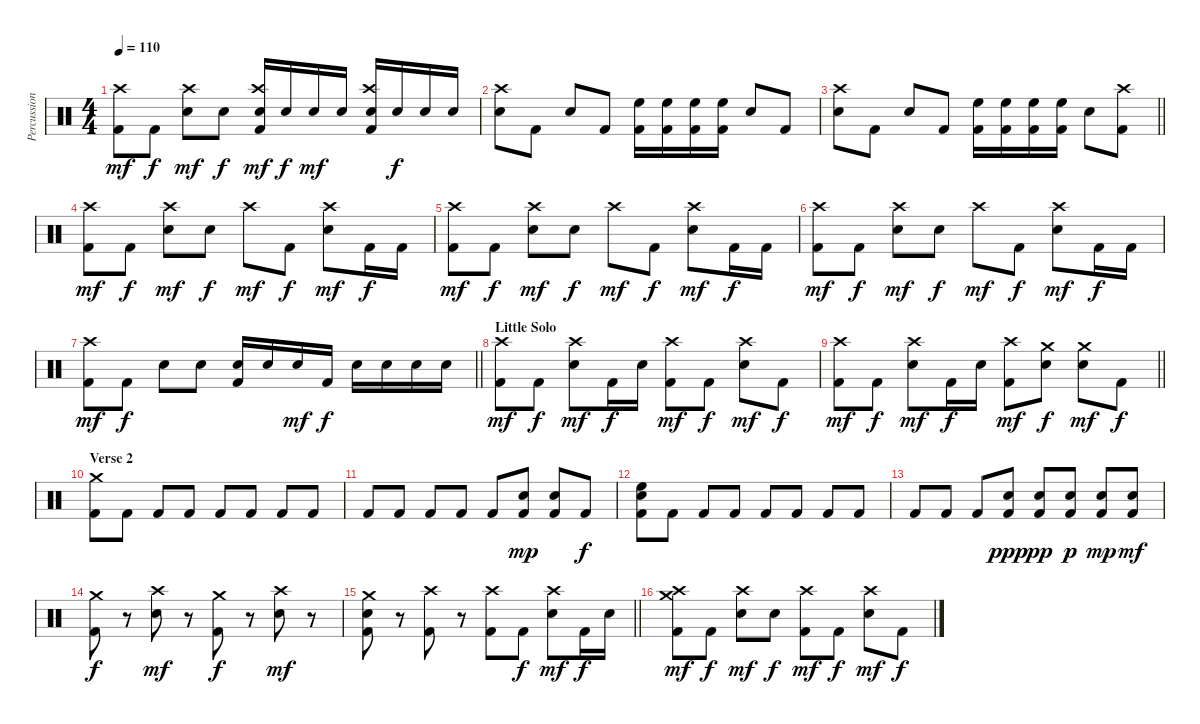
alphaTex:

\track ("Percussion" "Percussion") {instrument percussion}
\staff {score}
\articulation defaults
\ts (4 4)
\tempo 110
\clef neutral
\ks c
("Kick (hit) 2" "Crash high (hit)").8{dy mf} "Kick (hit) 2".8{dy f} ("Electric Snare (hit)" "Crash high (hit)").8{dy mf} "Electric Snare (hit)".8{dy f} ("Kick (hit) 2" "Electric Snare (hit)" "Crash high (hit)").16{dy mf} "Electric Snare (hit)".16{dy f} "Electric Snare (hit)".16{dy mf} "Electric Snare (hit)".16 ("Kick (hit) 2" "Electric Snare (hit)" "Crash high (hit)").16 "Electric Snare (hit)".16{dy f} "Electric Snare (hit)".16 "Electric Snare (hit)".16 |
("Electric Snare (hit)" "Crash high (hit)").8 "Kick (hit) 2".8 "Electric Snare (hit)".8 "Kick (hit) 2".8 ("Kick (hit) 2" "High Floor Tom (hit)").16 ("Kick (hit) 2" "High Floor Tom (hit)").16 ("Kick (hit) 2" "High Floor Tom (hit)").16 ("Kick (hit) 2" "High Floor Tom (hit)").16 "Electric Snare (hit)".8 "Kick (hit) 2".8 |
\barLineRight lightlight
("Electric Snare (hit)" "Crash high (hit)").8 "Kick (hit) 2".8 "Electric Snare (hit)".8 "Kick (hit) 2".8 ("Kick (hit) 2" "High Floor Tom (hit)").16 ("Kick (hit) 2" "High Floor Tom (hit)").16 ("Kick (hit) 2" "High Floor Tom (hit)").16 ("Kick (hit) 2" "High Floor Tom (hit)").16 "Electric Snare (hit)".8 ("Kick (hit) 2" "Crash high (hit)").8 |
("Kick (hit) 2" "Crash high (hit)").8{dy mf} "Kick (hit) 2".8{dy f} ("Electric Snare (hit)" "Crash high (hit)").8{dy mf} "Electric Snare (hit)".8{dy f} "Crash high (hit)".8{dy mf} "Kick (hit) 2".8{dy f} ("Electric Snare (hit)" "Crash high (hit)").8{dy mf} "Kick (hit) 2".16{dy f} "Kick (hit) 2".16 |
("Kick (hit) 2" "Crash high (hit)").8{dy mf} "Kick (hit) 2".8{dy f} ("Electric Snare (hit)" "Crash high (hit)").8{dy mf} "Electric Snare (hit)".8{dy f} "Crash high (hit)".8{dy mf} "Kick (hit) 2".8{dy f} ("Electric Snare (hit)" "Crash high (hit)").8{dy mf} "Kick (hit) 2".16{dy f} "Kick (hit) 2".16 |
("Kick (hit) 2" "Crash high (hit)").8{dy mf} "Kick (hit) 2".8{dy f} ("Electric Snare (hit)" "Crash high (hit)").8{dy mf} "Electric Snare (hit)".8{dy f} "Crash high (hit)".8{dy mf} "Kick (hit) 2".8{dy f} ("Electric Snare (hit)" "Crash high (hit)").8{dy mf} "Kick (hit) 2".16{dy f} "Kick (hit) 2".16 |
\barLineRight lightlight
("Kick (hit) 2" "Crash high (hit)").8{dy mf} "Kick (hit) 2".8{dy f} "Electric Snare (hit)".8 "Electric Snare (hit)".8 ("Kick (hit) 2" "Electric Snare (hit)").16 "Electric Snare (hit)".16 "Electric Snare (hit)".16{dy mf} "Kick (hit) 2".16{dy f} "Electric Snare (hit)".16 "Electric Snare (hit)".16 "Electric Snare (hit)".16 "Electric Snare (hit)".16 |
\section ("" "Little Solo")
("Kick (hit) 2" "Crash high (hit)").8{dy mf} "Kick (hit) 2".8{dy f} ("Electric Snare (hit)" "Crash high (hit)").8{dy mf} "Kick (hit) 2".16{dy f} "Electric Snare (hit)".16 ("Kick (hit) 2" "Crash high (hit)").8{dy mf} "Kick (hit) 2".8{dy f} ("Electric Snare (hit)" "Crash high (hit)").8{dy mf} "Kick (hit) 2".8{dy f} |
\barLineRight lightlight
("Kick (hit) 2" "Crash high (hit)").8{dy mf} "Kick (hit) 2".8{dy f} ("Electric Snare (hit)" "Crash high (hit)").8{dy mf} "Kick (hit) 2".16{dy f} "Electric Snare (hit)".16 ("Kick (hit) 2" "Crash high (hit)").8{dy mf} ("Electric Snare (hit)" "Crash medium (hit)").8{dy f} ("Electric Snare (hit)" "Crash medium (hit)").8{dy mf} "Kick (hit) 2".8{dy f} |
\section ("" "Verse 2")
("Kick (hit) 2" "Crash medium (hit)").8 "Kick (hit) 2".8 "Kick (hit) 2".8 "Kick (hit) 2".8 "Kick (hit) 2".8 "Kick (hit) 2".8 "Kick (hit) 2".8 "Kick (hit) 2".8 |
"Kick (hit) 2".8 "Kick (hit) 2".8 "Kick (hit) 2".8 "Kick (hit) 2".8 "Kick (hit) 2".8 ("Kick (hit) 2" "Electric Snare (hit)").8{dy mp} ("Kick (hit) 2" "Electric Snare (hit)").8 "Kick (hit) 2".8{dy f} |
("Kick (hit) 2" "Electric Snare (hit)" "High Floor Tom (hit)").8 "Kick (hit) 2".8 "Kick (hit) 2".8 "Kick (hit) 2".8 "Kick (hit) 2".8 "Kick (hit) 2".8 "Kick (hit) 2".8 "Kick (hit) 2".8 |
"Kick (hit) 2".8 "Kick (hit) 2".8 "Kick (hit) 2".8 ("Kick (hit) 2" "Electric Snare (hit)").8{dy ppp} ("Kick (hit) 2" "Electric Snare (hit)").8{dy pp} ("Kick (hit) 2" "Electric Snare (hit)").8{dy p} ("Kick (hit) 2" "Electric Snare (hit)").8{dy mp} ("Kick (hit) 2" "Electric Snare (hit)").8{dy mf} |
("Kick (hit) 2" "Crash medium (hit)").8{dy f} r.8 ("Electric Snare (hit)" "Crash high (hit)").8{dy mf} r.8 ("Kick (hit) 2" "Crash medium (hit)").8{dy f} r.8 ("Electric Snare (hit)" "Crash high (hit)").8{dy mf} r.8 |
\barLineRight lightlight
("Kick (hit) 2" "Electric Snare (hit)" "Crash medium (hit)").8 r.8 ("Kick (hit) 2" "Crash high (hit)").8 r.8 ("Kick (hit) 2" "Crash high (hit)").8 "Kick (hit) 2".8{dy f} ("Electric Snare (hit)" "Crash high (hit)").8{dy mf} "Kick (hit) 2".16{dy f} "Electric Snare (hit)".16 |
("Kick (hit) 2" "Crash high (hit)" "Crash medium (hit)").8{dy mf} "Kick (hit) 2".8{dy f} ("Electric Snare (hit)" "Crash high (hit)").8{dy mf} "Electric Snare (hit)".8{dy f} ("Kick (hit) 2" "Crash high (hit)").8{dy mf} "Kick (hit) 2".8{dy f} ("Electric Snare (hit)" "Crash high (hit)").8{dy mf} "Kick (hit) 2".8{dy f}
